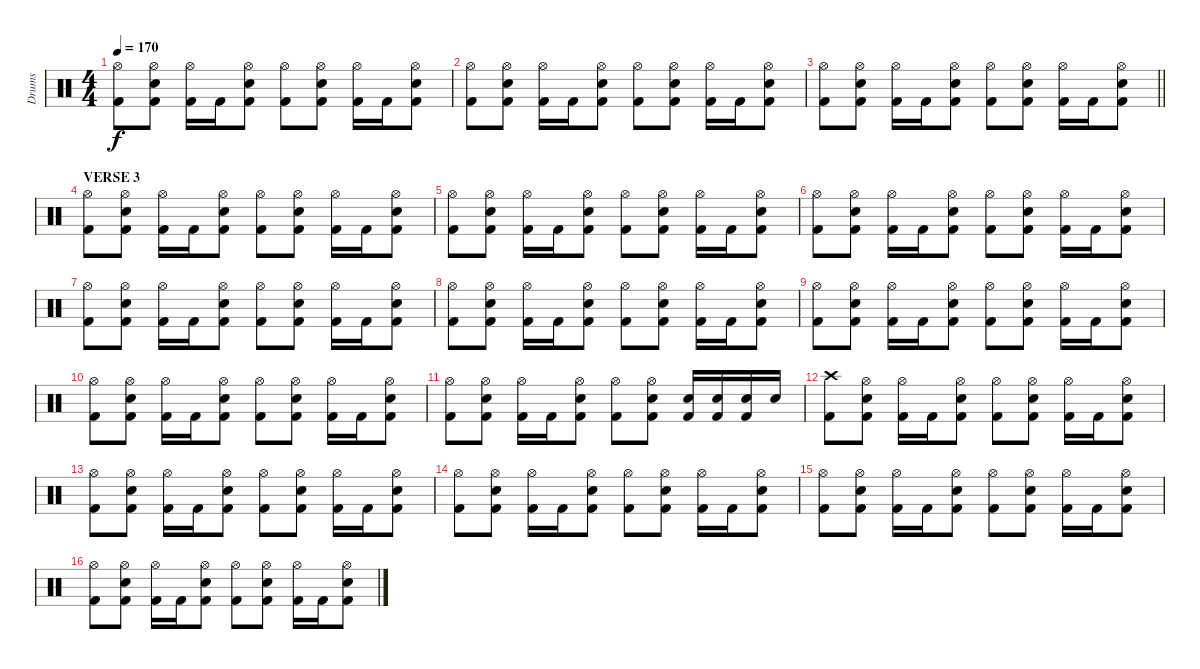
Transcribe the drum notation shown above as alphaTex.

\track ("Drums" "Drums") {instrument percussion}
\staff {score}
\articulation defaults
\ts (4 4)
\tempo 170
\clef neutral
\ks c
("Hi-Hat (open)" "Kick (hit) 2").8{dy f} ("Hi-Hat (open)" "Snare (hit) 2" "Kick (hit) 2").8 ("Hi-Hat (open)" "Kick (hit) 2").16 "Kick (hit) 2".16 ("Hi-Hat (open)" "Snare (hit) 2" "Kick (hit) 2").8 ("Hi-Hat (open)" "Kick (hit) 2").8 ("Hi-Hat (open)" "Snare (hit) 2" "Kick (hit) 2").8 ("Hi-Hat (open)" "Kick (hit) 2").16 "Kick (hit) 2".16 ("Hi-Hat (open)" "Snare (hit) 2" "Kick (hit) 2").8 |
("Hi-Hat (open)" "Kick (hit) 2").8 ("Hi-Hat (open)" "Snare (hit) 2" "Kick (hit) 2").8 ("Hi-Hat (open)" "Kick (hit) 2").16 "Kick (hit) 2".16 ("Hi-Hat (open)" "Snare (hit) 2" "Kick (hit) 2").8 ("Hi-Hat (open)" "Kick (hit) 2").8 ("Hi-Hat (open)" "Snare (hit) 2" "Kick (hit) 2").8 ("Hi-Hat (open)" "Kick (hit) 2").16 "Kick (hit) 2".16 ("Hi-Hat (open)" "Snare (hit) 2" "Kick (hit) 2").8 |
\barLineRight lightlight
("Hi-Hat (open)" "Kick (hit) 2").8 ("Hi-Hat (open)" "Snare (hit) 2" "Kick (hit) 2").8 ("Hi-Hat (open)" "Kick (hit) 2").16 "Kick (hit) 2".16 ("Hi-Hat (open)" "Snare (hit) 2" "Kick (hit) 2").8 ("Hi-Hat (open)" "Kick (hit) 2").8 ("Hi-Hat (open)" "Snare (hit) 2" "Kick (hit) 2").8 ("Hi-Hat (open)" "Kick (hit) 2").16 "Kick (hit) 2".16 ("Hi-Hat (open)" "Snare (hit) 2" "Kick (hit) 2").8 |
\section ("" "VERSE 3")
("Hi-Hat (open)" "Kick (hit) 2").8 ("Hi-Hat (open)" "Snare (hit) 2" "Kick (hit) 2").8 ("Hi-Hat (open)" "Kick (hit) 2").16 "Kick (hit) 2".16 ("Hi-Hat (open)" "Snare (hit) 2" "Kick (hit) 2").8 ("Hi-Hat (open)" "Kick (hit) 2").8 ("Hi-Hat (open)" "Snare (hit) 2" "Kick (hit) 2").8 ("Hi-Hat (open)" "Kick (hit) 2").16 "Kick (hit) 2".16 ("Hi-Hat (open)" "Snare (hit) 2" "Kick (hit) 2").8 |
("Hi-Hat (open)" "Kick (hit) 2").8 ("Hi-Hat (open)" "Snare (hit) 2" "Kick (hit) 2").8 ("Hi-Hat (open)" "Kick (hit) 2").16 "Kick (hit) 2".16 ("Hi-Hat (open)" "Snare (hit) 2" "Kick (hit) 2").8 ("Hi-Hat (open)" "Kick (hit) 2").8 ("Hi-Hat (open)" "Snare (hit) 2" "Kick (hit) 2").8 ("Hi-Hat (open)" "Kick (hit) 2").16 "Kick (hit) 2".16 ("Hi-Hat (open)" "Snare (hit) 2" "Kick (hit) 2").8 |
("Hi-Hat (open)" "Kick (hit) 2").8 ("Hi-Hat (open)" "Snare (hit) 2" "Kick (hit) 2").8 ("Hi-Hat (open)" "Kick (hit) 2").16 "Kick (hit) 2".16 ("Hi-Hat (open)" "Snare (hit) 2" "Kick (hit) 2").8 ("Hi-Hat (open)" "Kick (hit) 2").8 ("Hi-Hat (open)" "Snare (hit) 2" "Kick (hit) 2").8 ("Hi-Hat (open)" "Kick (hit) 2").16 "Kick (hit) 2".16 ("Hi-Hat (open)" "Snare (hit) 2" "Kick (hit) 2").8 |
("Hi-Hat (open)" "Kick (hit) 2").8 ("Hi-Hat (open)" "Snare (hit) 2" "Kick (hit) 2").8 ("Hi-Hat (open)" "Kick (hit) 2").16 "Kick (hit) 2".16 ("Hi-Hat (open)" "Snare (hit) 2" "Kick (hit) 2").8 ("Hi-Hat (open)" "Kick (hit) 2").8 ("Hi-Hat (open)" "Snare (hit) 2" "Kick (hit) 2").8 ("Hi-Hat (open)" "Kick (hit) 2").16 "Kick (hit) 2".16 ("Hi-Hat (open)" "Snare (hit) 2" "Kick (hit) 2").8 |
("Hi-Hat (open)" "Kick (hit) 2").8 ("Hi-Hat (open)" "Snare (hit) 2" "Kick (hit) 2").8 ("Hi-Hat (open)" "Kick (hit) 2").16 "Kick (hit) 2".16 ("Hi-Hat (open)" "Snare (hit) 2" "Kick (hit) 2").8 ("Hi-Hat (open)" "Kick (hit) 2").8 ("Hi-Hat (open)" "Snare (hit) 2" "Kick (hit) 2").8 ("Hi-Hat (open)" "Kick (hit) 2").16 "Kick (hit) 2".16 ("Hi-Hat (open)" "Snare (hit) 2" "Kick (hit) 2").8 |
("Hi-Hat (open)" "Kick (hit) 2").8 ("Hi-Hat (open)" "Snare (hit) 2" "Kick (hit) 2").8 ("Hi-Hat (open)" "Kick (hit) 2").16 "Kick (hit) 2".16 ("Hi-Hat (open)" "Snare (hit) 2" "Kick (hit) 2").8 ("Hi-Hat (open)" "Kick (hit) 2").8 ("Hi-Hat (open)" "Snare (hit) 2" "Kick (hit) 2").8 ("Hi-Hat (open)" "Kick (hit) 2").16 "Kick (hit) 2".16 ("Hi-Hat (open)" "Snare (hit) 2" "Kick (hit) 2").8 |
("Hi-Hat (open)" "Kick (hit) 2").8 ("Hi-Hat (open)" "Snare (hit) 2" "Kick (hit) 2").8 ("Hi-Hat (open)" "Kick (hit) 2").16 "Kick (hit) 2".16 ("Hi-Hat (open)" "Snare (hit) 2" "Kick (hit) 2").8 ("Hi-Hat (open)" "Kick (hit) 2").8 ("Hi-Hat (open)" "Snare (hit) 2" "Kick (hit) 2").8 ("Hi-Hat (open)" "Kick (hit) 2").16 "Kick (hit) 2".16 ("Hi-Hat (open)" "Snare (hit) 2" "Kick (hit) 2").8 |
("Hi-Hat (open)" "Kick (hit) 2").8 ("Hi-Hat (open)" "Snare (hit) 2" "Kick (hit) 2").8 ("Hi-Hat (open)" "Kick (hit) 2").16 "Kick (hit) 2".16 ("Hi-Hat (open)" "Snare (hit) 2" "Kick (hit) 2").8 ("Hi-Hat (open)" "Kick (hit) 2").8 ("Hi-Hat (open)" "Snare (hit) 2" "Kick (hit) 2").8 ("Snare (hit) 2" "Kick (hit) 2").16 ("Snare (hit) 2" "Kick (hit) 2").16 ("Snare (hit) 2" "Kick (hit) 2").16 "Snare (hit) 2".16 |
("Crash high (hit)" "Kick (hit) 2").8 ("Hi-Hat (open)" "Snare (hit) 2" "Kick (hit) 2").8 ("Hi-Hat (open)" "Kick (hit) 2").16 "Kick (hit) 2".16 ("Hi-Hat (open)" "Snare (hit) 2" "Kick (hit) 2").8 ("Hi-Hat (open)" "Kick (hit) 2").8 ("Hi-Hat (open)" "Snare (hit) 2" "Kick (hit) 2").8 ("Hi-Hat (open)" "Kick (hit) 2").16 "Kick (hit) 2".16 ("Hi-Hat (open)" "Snare (hit) 2" "Kick (hit) 2").8 |
("Hi-Hat (open)" "Kick (hit) 2").8 ("Hi-Hat (open)" "Snare (hit) 2" "Kick (hit) 2").8 ("Hi-Hat (open)" "Kick (hit) 2").16 "Kick (hit) 2".16 ("Hi-Hat (open)" "Snare (hit) 2" "Kick (hit) 2").8 ("Hi-Hat (open)" "Kick (hit) 2").8 ("Hi-Hat (open)" "Snare (hit) 2" "Kick (hit) 2").8 ("Hi-Hat (open)" "Kick (hit) 2").16 "Kick (hit) 2".16 ("Hi-Hat (open)" "Snare (hit) 2" "Kick (hit) 2").8 |
("Hi-Hat (open)" "Kick (hit) 2").8 ("Hi-Hat (open)" "Snare (hit) 2" "Kick (hit) 2").8 ("Hi-Hat (open)" "Kick (hit) 2").16 "Kick (hit) 2".16 ("Hi-Hat (open)" "Snare (hit) 2" "Kick (hit) 2").8 ("Hi-Hat (open)" "Kick (hit) 2").8 ("Hi-Hat (open)" "Snare (hit) 2" "Kick (hit) 2").8 ("Hi-Hat (open)" "Kick (hit) 2").16 "Kick (hit) 2".16 ("Hi-Hat (open)" "Snare (hit) 2" "Kick (hit) 2").8 |
("Hi-Hat (open)" "Kick (hit) 2").8 ("Hi-Hat (open)" "Snare (hit) 2" "Kick (hit) 2").8 ("Hi-Hat (open)" "Kick (hit) 2").16 "Kick (hit) 2".16 ("Hi-Hat (open)" "Snare (hit) 2" "Kick (hit) 2").8 ("Hi-Hat (open)" "Kick (hit) 2").8 ("Hi-Hat (open)" "Snare (hit) 2" "Kick (hit) 2").8 ("Hi-Hat (open)" "Kick (hit) 2").16 "Kick (hit) 2".16 ("Hi-Hat (open)" "Snare (hit) 2" "Kick (hit) 2").8 |
("Hi-Hat (open)" "Kick (hit) 2").8 ("Hi-Hat (open)" "Snare (hit) 2" "Kick (hit) 2").8 ("Hi-Hat (open)" "Kick (hit) 2").16 "Kick (hit) 2".16 ("Hi-Hat (open)" "Snare (hit) 2" "Kick (hit) 2").8 ("Hi-Hat (open)" "Kick (hit) 2").8 ("Hi-Hat (open)" "Snare (hit) 2" "Kick (hit) 2").8 ("Hi-Hat (open)" "Kick (hit) 2").16 "Kick (hit) 2".16 ("Hi-Hat (open)" "Snare (hit) 2" "Kick (hit) 2").8
